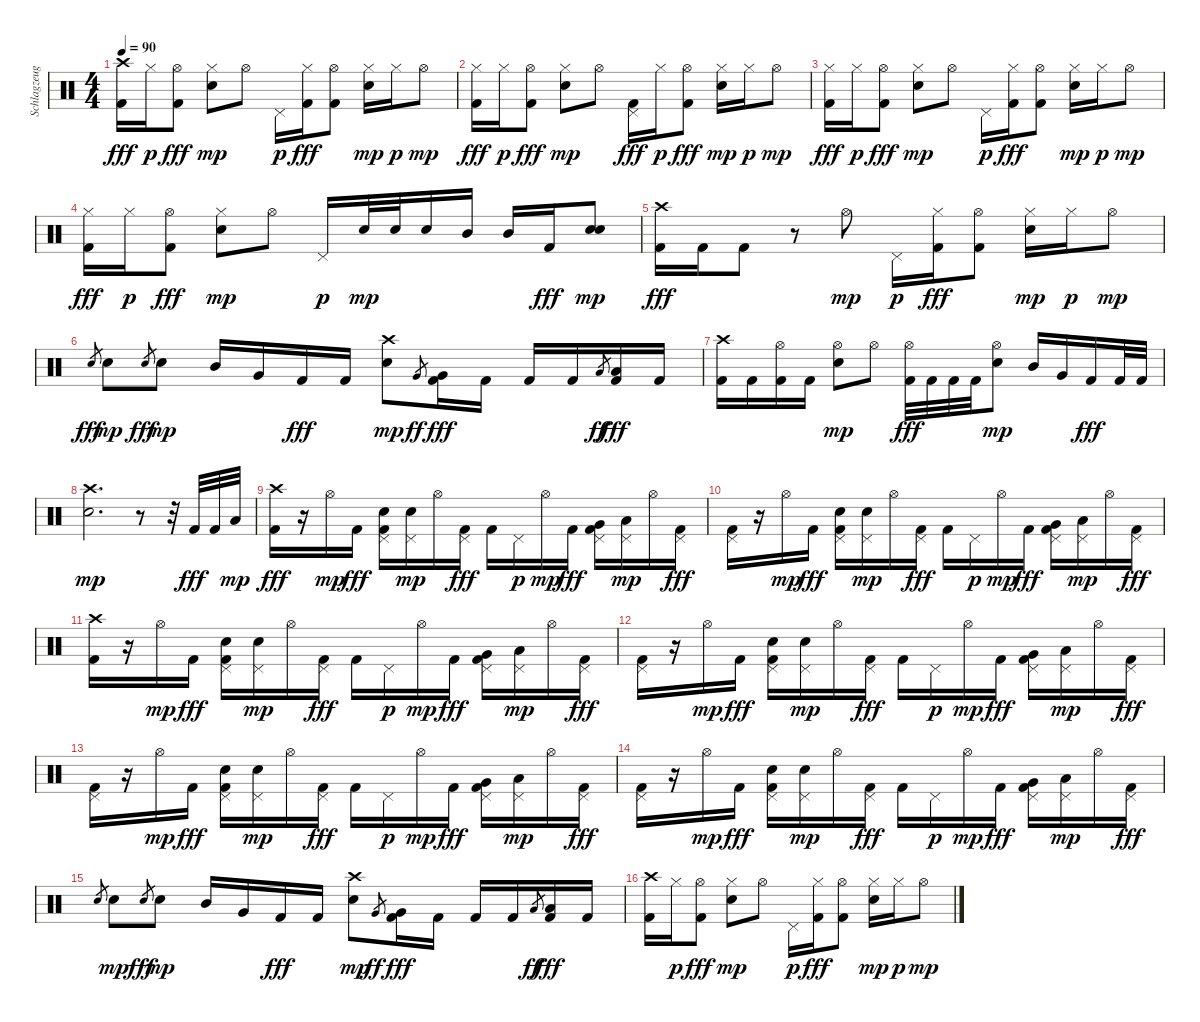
\track ("Schlagzeug" "Schlagzeug") {instrument percussion}
\staff {score}
\articulation defaults
\ts (4 4)
\tempo 90
\clef neutral
\ks c
("Crash high (hit)" "Kick (hit) 2").16{dy fff} "Hi-Hat (closed)".16{dy p} ("Hi-Hat (open)" "Kick (hit) 2").8{dy fff} ("Hi-Hat (closed)" "Electric Snare (hit)").8{dy mp} "Hi-Hat (open)".8 "Pedal Hi-Hat (hit)".16{dy p} ("Hi-Hat (closed)" "Kick (hit) 2").16{dy fff} ("Hi-Hat (open)" "Kick (hit) 2").8 ("Hi-Hat (closed)" "Electric Snare (hit)").16{dy mp} "Hi-Hat (closed)".16{dy p} "Hi-Hat (open)".8{dy mp} |
("Hi-Hat (closed)" "Kick (hit) 2").16{dy fff} "Hi-Hat (closed)".16{dy p} ("Hi-Hat (open)" "Kick (hit) 2").8{dy fff} ("Hi-Hat (closed)" "Electric Snare (hit)").8{dy mp} "Hi-Hat (open)".8 ("Pedal Hi-Hat (hit)" "Kick (hit) 2").16{dy fff} "Hi-Hat (closed)".16{dy p} ("Hi-Hat (open)" "Kick (hit) 2").8{dy fff} ("Hi-Hat (closed)" "Electric Snare (hit)").16{dy mp} "Hi-Hat (closed)".16{dy p} "Hi-Hat (open)".8{dy mp} |
("Hi-Hat (closed)" "Kick (hit) 2").16{dy fff} "Hi-Hat (closed)".16{dy p} ("Hi-Hat (open)" "Kick (hit) 2").8{dy fff} ("Hi-Hat (closed)" "Electric Snare (hit)").8{dy mp} "Hi-Hat (open)".8 "Pedal Hi-Hat (hit)".16{dy p} ("Hi-Hat (closed)" "Kick (hit) 2").16{dy fff} ("Hi-Hat (open)" "Kick (hit) 2").8 ("Hi-Hat (closed)" "Electric Snare (hit)").16{dy mp} "Hi-Hat (closed)".16{dy p} "Hi-Hat (open)".8{dy mp} |
("Hi-Hat (closed)" "Kick (hit) 2").16{dy fff} "Hi-Hat (closed)".16{dy p} ("Hi-Hat (open)" "Kick (hit) 2").8{dy fff} ("Hi-Hat (closed)" "Electric Snare (hit)").8{dy mp} "Hi-Hat (open)".8 "Pedal Hi-Hat (hit)".16{dy p} "Electric Snare (hit)".32{dy mp} "Electric Snare (hit)".32 "Electric Snare (hit)".16 "Mid Tom (hit)".16 "Mid Tom (hit)".16 "Kick (hit) 2".16{dy fff} ("Electric Snare (hit)" "Electric Snare (hit)").8{dy mp} |
("Crash high (hit)" "Kick (hit) 2").16{dy fff} "Kick (hit) 2".16 "Kick (hit) 2".8 r.8 "Hi-Hat (open)".8{dy mp} "Pedal Hi-Hat (hit)".16{dy p} ("Hi-Hat (closed)" "Kick (hit) 2").16{dy fff} ("Hi-Hat (open)" "Kick (hit) 2").8 ("Hi-Hat (closed)" "Electric Snare (hit)").16{dy mp} "Hi-Hat (closed)".16{dy p} "Hi-Hat (open)".8{dy mp} |
"Electric Snare (hit)".8{gr dy fff} "Electric Snare (hit)".8{dy mp} "Electric Snare (hit)".8{gr dy fff} "Electric Snare (hit)".8{dy mp} "Mid Tom (hit)".16 "Very Low Tom (hit)".16 "Kick (hit) 2".16{dy fff} "Kick (hit) 2".16 ("Crash high (hit)" "Electric Snare (hit)").8{dy mp} "Very Low Tom (hit)".8{gr dy ff} ("Very Low Tom (hit)" "Kick (hit) 2").16{dy fff} "Kick (hit) 2".16 "Kick (hit) 2".16 "Kick (hit) 2".16 "Low Floor Tom (hit)".8{gr dy ff} ("Low Floor Tom (hit)" "Kick (hit) 2").16{dy fff} "Kick (hit) 2".16 |
("Crash high (hit)" "Kick (hit) 2").16 "Kick (hit) 2".16 ("Hi-Hat (open)" "Kick (hit) 2").16 "Kick (hit) 2".16 ("Hi-Hat (open)" "Electric Snare (hit)").8{dy mp} "Hi-Hat (open)".8 ("Hi-Hat (open)" "Kick (hit) 2").32{dy fff} "Kick (hit) 2".32 "Kick (hit) 2".32 "Kick (hit) 2".32 ("Hi-Hat (open)" "Electric Snare (hit)").8{dy mp} "Mid Tom (hit)".16 "Very Low Tom (hit)".16 "Kick (hit) 2".16{dy fff} "Kick (hit) 2".32 "Kick (hit) 2".32 |
("Crash high (hit)" "Electric Snare (hit)").2{d dy mp} r.8 r.32 "Kick (hit) 2".32{dy fff} "Kick (hit) 2".32 "Low Floor Tom (hit)".32{dy mp} |
("Crash high (hit)" "Kick (hit) 2").16{dy fff} r.16 "Hi-Hat (open)".16{dy mp} "Kick (hit) 2".16{dy fff} ("Pedal Hi-Hat (hit)" "Electric Snare (hit)" "Kick (hit) 2").16 ("Pedal Hi-Hat (hit)" "Electric Snare (hit)").16{dy mp} "Hi-Hat (open)".16 ("Pedal Hi-Hat (hit)" "Kick (hit) 2").16{dy fff} "Kick (hit) 2".16 "Pedal Hi-Hat (hit)".16{dy p} "Hi-Hat (open)".16{dy mp} "Kick (hit) 2".16{dy fff} ("Pedal Hi-Hat (hit)" "Very Low Tom (hit)" "Kick (hit) 2").16 ("Pedal Hi-Hat (hit)" "Low Floor Tom (hit)").16{dy mp} "Hi-Hat (open)".16 ("Pedal Hi-Hat (hit)" "Kick (hit) 2").16{dy fff} |
("Pedal Hi-Hat (hit)" "Kick (hit) 2").16 r.16 "Hi-Hat (open)".16{dy mp} "Kick (hit) 2".16{dy fff} ("Pedal Hi-Hat (hit)" "Electric Snare (hit)" "Kick (hit) 2").16 ("Pedal Hi-Hat (hit)" "Electric Snare (hit)").16{dy mp} "Hi-Hat (open)".16 ("Pedal Hi-Hat (hit)" "Kick (hit) 2").16{dy fff} "Kick (hit) 2".16 "Pedal Hi-Hat (hit)".16{dy p} "Hi-Hat (open)".16{dy mp} "Kick (hit) 2".16{dy fff} ("Pedal Hi-Hat (hit)" "Very Low Tom (hit)" "Kick (hit) 2").16 ("Pedal Hi-Hat (hit)" "Low Floor Tom (hit)").16{dy mp} "Hi-Hat (open)".16 ("Pedal Hi-Hat (hit)" "Kick (hit) 2").16{dy fff} |
("Crash high (hit)" "Kick (hit) 2").16 r.16 "Hi-Hat (open)".16{dy mp} "Kick (hit) 2".16{dy fff} ("Pedal Hi-Hat (hit)" "Electric Snare (hit)" "Kick (hit) 2").16 ("Pedal Hi-Hat (hit)" "Electric Snare (hit)").16{dy mp} "Hi-Hat (open)".16 ("Pedal Hi-Hat (hit)" "Kick (hit) 2").16{dy fff} "Kick (hit) 2".16 "Pedal Hi-Hat (hit)".16{dy p} "Hi-Hat (open)".16{dy mp} "Kick (hit) 2".16{dy fff} ("Pedal Hi-Hat (hit)" "Very Low Tom (hit)" "Kick (hit) 2").16 ("Pedal Hi-Hat (hit)" "Low Floor Tom (hit)").16{dy mp} "Hi-Hat (open)".16 ("Pedal Hi-Hat (hit)" "Kick (hit) 2").16{dy fff} |
("Pedal Hi-Hat (hit)" "Kick (hit) 2").16 r.16 "Hi-Hat (open)".16{dy mp} "Kick (hit) 2".16{dy fff} ("Pedal Hi-Hat (hit)" "Electric Snare (hit)" "Kick (hit) 2").16 ("Pedal Hi-Hat (hit)" "Electric Snare (hit)").16{dy mp} "Hi-Hat (open)".16 ("Pedal Hi-Hat (hit)" "Kick (hit) 2").16{dy fff} "Kick (hit) 2".16 "Pedal Hi-Hat (hit)".16{dy p} "Hi-Hat (open)".16{dy mp} "Kick (hit) 2".16{dy fff} ("Pedal Hi-Hat (hit)" "Very Low Tom (hit)" "Kick (hit) 2").16 ("Pedal Hi-Hat (hit)" "Low Floor Tom (hit)").16{dy mp} "Hi-Hat (open)".16 ("Pedal Hi-Hat (hit)" "Kick (hit) 2").16{dy fff} |
("Pedal Hi-Hat (hit)" "Kick (hit) 2").16 r.16 "Hi-Hat (open)".16{dy mp} "Kick (hit) 2".16{dy fff} ("Pedal Hi-Hat (hit)" "Electric Snare (hit)" "Kick (hit) 2").16 ("Pedal Hi-Hat (hit)" "Electric Snare (hit)").16{dy mp} "Hi-Hat (open)".16 ("Pedal Hi-Hat (hit)" "Kick (hit) 2").16{dy fff} "Kick (hit) 2".16 "Pedal Hi-Hat (hit)".16{dy p} "Hi-Hat (open)".16{dy mp} "Kick (hit) 2".16{dy fff} ("Pedal Hi-Hat (hit)" "Very Low Tom (hit)" "Kick (hit) 2").16 ("Pedal Hi-Hat (hit)" "Low Floor Tom (hit)").16{dy mp} "Hi-Hat (open)".16 ("Pedal Hi-Hat (hit)" "Kick (hit) 2").16{dy fff} |
("Pedal Hi-Hat (hit)" "Kick (hit) 2").16 r.16 "Hi-Hat (open)".16{dy mp} "Kick (hit) 2".16{dy fff} ("Pedal Hi-Hat (hit)" "Electric Snare (hit)" "Kick (hit) 2").16 ("Pedal Hi-Hat (hit)" "Electric Snare (hit)").16{dy mp} "Hi-Hat (open)".16 ("Pedal Hi-Hat (hit)" "Kick (hit) 2").16{dy fff} "Kick (hit) 2".16 "Pedal Hi-Hat (hit)".16{dy p} "Hi-Hat (open)".16{dy mp} "Kick (hit) 2".16{dy fff} ("Pedal Hi-Hat (hit)" "Very Low Tom (hit)" "Kick (hit) 2").16 ("Pedal Hi-Hat (hit)" "Low Floor Tom (hit)").16{dy mp} "Hi-Hat (open)".16 ("Pedal Hi-Hat (hit)" "Kick (hit) 2").16{dy fff} |
"Electric Snare (hit)".8{gr} "Electric Snare (hit)".8{dy mp} "Electric Snare (hit)".8{gr dy fff} "Electric Snare (hit)".8{dy mp} "Mid Tom (hit)".16 "Very Low Tom (hit)".16 "Kick (hit) 2".16{dy fff} "Kick (hit) 2".16 ("Crash high (hit)" "Electric Snare (hit)").8{dy mp} "Very Low Tom (hit)".8{gr dy ff} ("Very Low Tom (hit)" "Kick (hit) 2").16{dy fff} "Kick (hit) 2".16 "Kick (hit) 2".16 "Kick (hit) 2".16 "Low Floor Tom (hit)".8{gr dy ff} ("Low Floor Tom (hit)" "Kick (hit) 2").16{dy fff} "Kick (hit) 2".16 |
("Crash high (hit)" "Kick (hit) 2").16 "Hi-Hat (closed)".16{dy p} ("Hi-Hat (open)" "Kick (hit) 2").8{dy fff} ("Hi-Hat (closed)" "Electric Snare (hit)").8{dy mp} "Hi-Hat (open)".8 "Pedal Hi-Hat (hit)".16{dy p} ("Hi-Hat (closed)" "Kick (hit) 2").16{dy fff} ("Hi-Hat (open)" "Kick (hit) 2").8 ("Hi-Hat (closed)" "Electric Snare (hit)").16{dy mp} "Hi-Hat (closed)".16{dy p} "Hi-Hat (open)".8{dy mp}
